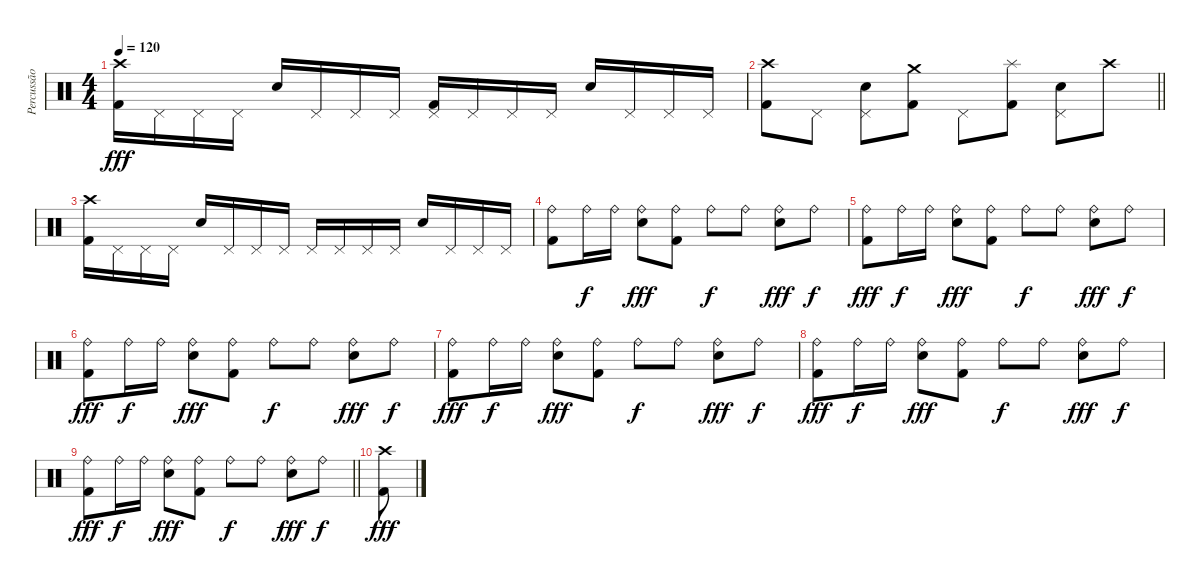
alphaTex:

\track ("Percussão" "Percussão") {instrument percussion}
\staff {score}
\articulation defaults
\ts (4 4)
\tempo 120
\clef neutral
\ks c
("Crash high (hit)" "Kick (hit) 2").16{dy fff} "Pedal Hi-Hat (hit)".16 "Pedal Hi-Hat (hit)".16 "Pedal Hi-Hat (hit)".16 "Electric Snare (hit)".16 "Pedal Hi-Hat (hit)".16 "Pedal Hi-Hat (hit)".16 "Pedal Hi-Hat (hit)".16 ("Pedal Hi-Hat (hit)" "Kick (hit) 2").16 "Pedal Hi-Hat (hit)".16 "Pedal Hi-Hat (hit)".16 "Pedal Hi-Hat (hit)".16 "Electric Snare (hit)".16 "Pedal Hi-Hat (hit)".16 "Pedal Hi-Hat (hit)".16 "Pedal Hi-Hat (hit)".16 |
\barLineRight lightlight
("Crash high (hit)" "Kick (hit) 2").8 "Pedal Hi-Hat (hit)".8 ("Pedal Hi-Hat (hit)" "Electric Snare (hit)").8 ("Crash medium (hit)" "Kick (hit) 2").8 "Pedal Hi-Hat (hit)".8 ("Splash (hit)" "Kick (hit) 2").8 ("Pedal Hi-Hat (hit)" "Electric Snare (hit)").8 "Crash high (hit)".8 |
("Crash high (hit)" "Kick (hit) 2").16 "Pedal Hi-Hat (hit)".16 "Pedal Hi-Hat (hit)".16 "Pedal Hi-Hat (hit)".16 "Electric Snare (hit)".16 "Pedal Hi-Hat (hit)".16 "Pedal Hi-Hat (hit)".16 "Pedal Hi-Hat (hit)".16 "Pedal Hi-Hat (hit)".16 "Pedal Hi-Hat (hit)".16 "Pedal Hi-Hat (hit)".16 "Pedal Hi-Hat (hit)".16 "Electric Snare (hit)".16 "Pedal Hi-Hat (hit)".16 "Pedal Hi-Hat (hit)".16 "Pedal Hi-Hat (hit)".16 |
("Ride (bell)" "Kick (hit) 2").8 "Ride (bell)".16{dy f} "Ride (bell)".16 ("Ride (bell)" "Electric Snare (hit)").8{dy fff} ("Ride (bell)" "Kick (hit) 2").8 "Ride (bell)".8{dy f} "Ride (bell)".8 ("Ride (bell)" "Electric Snare (hit)").8{dy fff} "Ride (bell)".8{dy f} |
("Ride (bell)" "Kick (hit) 2").8{dy fff} "Ride (bell)".16{dy f} "Ride (bell)".16 ("Ride (bell)" "Electric Snare (hit)").8{dy fff} ("Ride (bell)" "Kick (hit) 2").8 "Ride (bell)".8{dy f} "Ride (bell)".8 ("Ride (bell)" "Electric Snare (hit)").8{dy fff} "Ride (bell)".8{dy f} |
("Ride (bell)" "Kick (hit) 2").8{dy fff} "Ride (bell)".16{dy f} "Ride (bell)".16 ("Ride (bell)" "Electric Snare (hit)").8{dy fff} ("Ride (bell)" "Kick (hit) 2").8 "Ride (bell)".8{dy f} "Ride (bell)".8 ("Ride (bell)" "Electric Snare (hit)").8{dy fff} "Ride (bell)".8{dy f} |
("Ride (bell)" "Kick (hit) 2").8{dy fff} "Ride (bell)".16{dy f} "Ride (bell)".16 ("Ride (bell)" "Electric Snare (hit)").8{dy fff} ("Ride (bell)" "Kick (hit) 2").8 "Ride (bell)".8{dy f} "Ride (bell)".8 ("Ride (bell)" "Electric Snare (hit)").8{dy fff} "Ride (bell)".8{dy f} |
("Ride (bell)" "Kick (hit) 2").8{dy fff} "Ride (bell)".16{dy f} "Ride (bell)".16 ("Ride (bell)" "Electric Snare (hit)").8{dy fff} ("Ride (bell)" "Kick (hit) 2").8 "Ride (bell)".8{dy f} "Ride (bell)".8 ("Ride (bell)" "Electric Snare (hit)").8{dy fff} "Ride (bell)".8{dy f} |
\barLineRight lightlight
("Ride (bell)" "Kick (hit) 2").8{dy fff} "Ride (bell)".16{dy f} "Ride (bell)".16 ("Ride (bell)" "Electric Snare (hit)").8{dy fff} ("Ride (bell)" "Kick (hit) 2").8 "Ride (bell)".8{dy f} "Ride (bell)".8 ("Ride (bell)" "Electric Snare (hit)").8{dy fff} "Ride (bell)".8{dy f} |
("Crash high (hit)" "Kick (hit) 2").8{dy fff}
